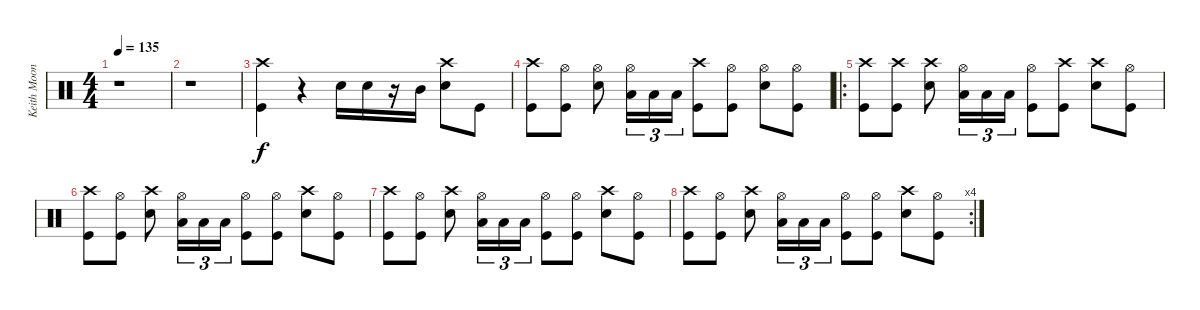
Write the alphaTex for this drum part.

\track ("Keith Moon" "Keith Moon") {instrument percussion}
\staff {score}
\articulation defaults
\ts (4 4)
\tempo 135
\clef neutral
\ks c
r.1{dy f} |
r.1 |
("Crash high (hit)" "Kick (hit)").4 r.4 "Snare (hit) 2".16 "Snare (hit) 2".16 r.16 "Mid Tom (hit)".16 ("Crash high (hit)" "Snare (hit) 2").8 "Kick (hit)".8 |
("Crash high (hit)" "Kick (hit)").8 ("Hi-Hat (open)" "Kick (hit)").8 ("Hi-Hat (open)" "Snare (hit) 2").8 ("Hi-Hat (open)" "Low Tom (hit)").16{tu (3 2)} "Low Tom (hit)".16{tu (3 2)} "Low Tom (hit)".16{tu (3 2)} ("Crash high (hit)" "Kick (hit)").8 ("Hi-Hat (open)" "Kick (hit)").8 ("Hi-Hat (open)" "Snare (hit) 2").8 ("Hi-Hat (open)" "Kick (hit)").8 |
\ro
("Crash high (hit)" "Kick (hit)").8 ("Crash high (hit)" "Kick (hit)").8 ("Crash high (hit)" "Snare (hit) 2").8 ("Hi-Hat (open)" "Low Tom (hit)").16{tu (3 2)} "Low Tom (hit)".16{tu (3 2)} "Low Tom (hit)".16{tu (3 2)} ("Hi-Hat (open)" "Kick (hit)").8 ("Crash high (hit)" "Kick (hit)").8 ("Crash high (hit)" "Snare (hit) 2").8 ("Hi-Hat (open)" "Kick (hit)").8 |
("Crash high (hit)" "Kick (hit)").8 ("Hi-Hat (open)" "Kick (hit)").8 ("Crash high (hit)" "Snare (hit) 2").8 ("Hi-Hat (open)" "Low Tom (hit)").16{tu (3 2)} "Low Tom (hit)".16{tu (3 2)} "Low Tom (hit)".16{tu (3 2)} ("Hi-Hat (open)" "Kick (hit)").8 ("Hi-Hat (open)" "Kick (hit)").8 ("Crash high (hit)" "Snare (hit) 2").8 ("Hi-Hat (open)" "Kick (hit)").8 |
("Crash high (hit)" "Kick (hit)").8 ("Hi-Hat (open)" "Kick (hit)").8 ("Crash high (hit)" "Snare (hit) 2").8 ("Hi-Hat (open)" "Low Tom (hit)").16{tu (3 2)} "Low Tom (hit)".16{tu (3 2)} "Low Tom (hit)".16{tu (3 2)} ("Hi-Hat (open)" "Kick (hit)").8 ("Hi-Hat (open)" "Kick (hit)").8 ("Crash high (hit)" "Snare (hit) 2").8 ("Hi-Hat (open)" "Kick (hit)").8 |
\rc 4
("Crash high (hit)" "Kick (hit)").8 ("Hi-Hat (open)" "Kick (hit)").8 ("Crash high (hit)" "Snare (hit) 2").8 ("Hi-Hat (open)" "Low Tom (hit)").16{tu (3 2)} "Low Tom (hit)".16{tu (3 2)} "Low Tom (hit)".16{tu (3 2)} ("Hi-Hat (open)" "Kick (hit)").8 ("Hi-Hat (open)" "Kick (hit)").8 ("Crash high (hit)" "Snare (hit) 2").8 ("Hi-Hat (open)" "Kick (hit)").8
